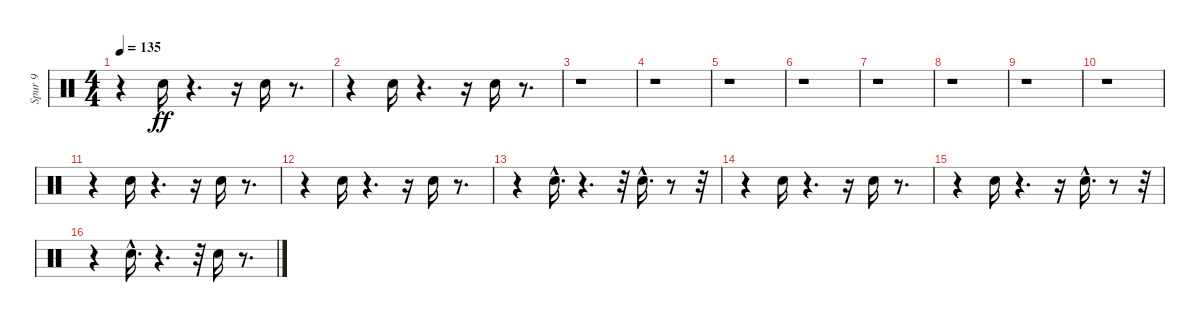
\track ("Spur 9" "Spur 9") {instrument percussion}
\staff {score}
\articulation defaults
\ts (4 4)
\tempo 135
\clef neutral
\ks c
r.4{dy ff} "Electric Snare (hit)".16 r.4{d} r.16 "Electric Snare (hit)".16 r.8{d} |
r.4 "Electric Snare (hit)".16 r.4{d} r.16 "Electric Snare (hit)".16 r.8{d} |
r.1 |
r.1 |
r.1 |
r.1 |
r.1 |
r.1 |
r.1 |
r.1 |
r.4 "Electric Snare (hit)".16 r.4{d} r.16 "Electric Snare (hit)".16 r.8{d} |
r.4 "Electric Snare (hit)".16 r.4{d} r.16 "Electric Snare (hit)".16 r.8{d} |
r.4 "Electric Snare (hit)"{hac}.16{d} r.4{d} r.32 "Electric Snare (hit)"{hac}.16{d} r.8 r.32 |
r.4 "Electric Snare (hit)".16 r.4{d} r.16 "Electric Snare (hit)".16 r.8{d} |
r.4 "Electric Snare (hit)".16 r.4{d} r.16 "Electric Snare (hit)"{hac}.16{d} r.8 r.32 |
r.4 "Electric Snare (hit)"{hac}.16{d} r.4{d} r.32 "Electric Snare (hit)".16 r.8{d}
